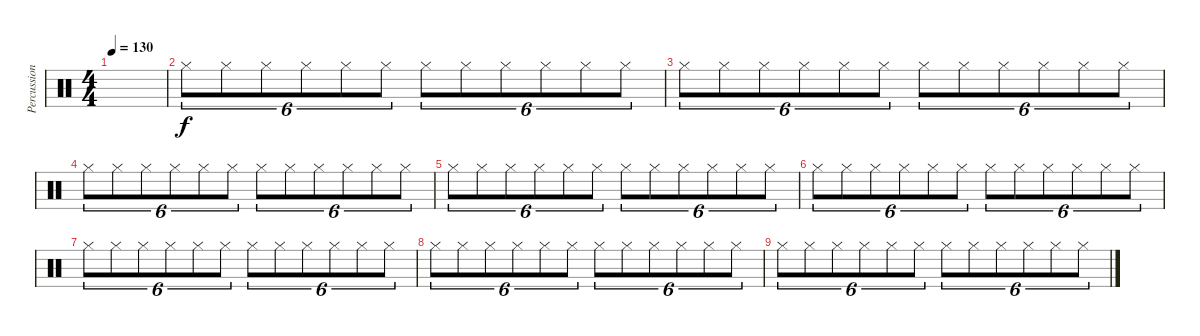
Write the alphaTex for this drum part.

\track ("Percussion" "Percussion") {instrument percussion bank 177}
\staff {score}
\articulation defaults
\ts (4 4)
\tempo 130
\clef neutral
\ks c
|
"Hi-Hat (closed)".8{tu (6 4)} "Hi-Hat (closed)".8{tu (6 4)} "Hi-Hat (closed)".8{tu (6 4)} "Hi-Hat (closed)".8{tu (6 4)} "Hi-Hat (closed)".8{tu (6 4)} "Hi-Hat (closed)".8{tu (6 4)} "Hi-Hat (closed)".8{tu (6 4)} "Hi-Hat (closed)".8{tu (6 4)} "Hi-Hat (closed)".8{tu (6 4)} "Hi-Hat (closed)".8{tu (6 4)} "Hi-Hat (closed)".8{tu (6 4)} "Hi-Hat (closed)".8{tu (6 4)} |
"Hi-Hat (closed)".8{tu (6 4)} "Hi-Hat (closed)".8{tu (6 4)} "Hi-Hat (closed)".8{tu (6 4)} "Hi-Hat (closed)".8{tu (6 4)} "Hi-Hat (closed)".8{tu (6 4)} "Hi-Hat (closed)".8{tu (6 4)} "Hi-Hat (closed)".8{tu (6 4)} "Hi-Hat (closed)".8{tu (6 4)} "Hi-Hat (closed)".8{tu (6 4)} "Hi-Hat (closed)".8{tu (6 4)} "Hi-Hat (closed)".8{tu (6 4)} "Hi-Hat (closed)".8{tu (6 4)} |
"Hi-Hat (closed)".8{tu (6 4)} "Hi-Hat (closed)".8{tu (6 4)} "Hi-Hat (closed)".8{tu (6 4)} "Hi-Hat (closed)".8{tu (6 4)} "Hi-Hat (closed)".8{tu (6 4)} "Hi-Hat (closed)".8{tu (6 4)} "Hi-Hat (closed)".8{tu (6 4)} "Hi-Hat (closed)".8{tu (6 4)} "Hi-Hat (closed)".8{tu (6 4)} "Hi-Hat (closed)".8{tu (6 4)} "Hi-Hat (closed)".8{tu (6 4)} "Hi-Hat (closed)".8{tu (6 4)} |
"Hi-Hat (closed)".8{tu (6 4)} "Hi-Hat (closed)".8{tu (6 4)} "Hi-Hat (closed)".8{tu (6 4)} "Hi-Hat (closed)".8{tu (6 4)} "Hi-Hat (closed)".8{tu (6 4)} "Hi-Hat (closed)".8{tu (6 4)} "Hi-Hat (closed)".8{tu (6 4)} "Hi-Hat (closed)".8{tu (6 4)} "Hi-Hat (closed)".8{tu (6 4)} "Hi-Hat (closed)".8{tu (6 4)} "Hi-Hat (closed)".8{tu (6 4)} "Hi-Hat (closed)".8{tu (6 4)} |
"Hi-Hat (closed)".8{tu (6 4)} "Hi-Hat (closed)".8{tu (6 4)} "Hi-Hat (closed)".8{tu (6 4)} "Hi-Hat (closed)".8{tu (6 4)} "Hi-Hat (closed)".8{tu (6 4)} "Hi-Hat (closed)".8{tu (6 4)} "Hi-Hat (closed)".8{tu (6 4)} "Hi-Hat (closed)".8{tu (6 4)} "Hi-Hat (closed)".8{tu (6 4)} "Hi-Hat (closed)".8{tu (6 4)} "Hi-Hat (closed)".8{tu (6 4)} "Hi-Hat (closed)".8{tu (6 4)} |
"Hi-Hat (closed)".8{tu (6 4)} "Hi-Hat (closed)".8{tu (6 4)} "Hi-Hat (closed)".8{tu (6 4)} "Hi-Hat (closed)".8{tu (6 4)} "Hi-Hat (closed)".8{tu (6 4)} "Hi-Hat (closed)".8{tu (6 4)} "Hi-Hat (closed)".8{tu (6 4)} "Hi-Hat (closed)".8{tu (6 4)} "Hi-Hat (closed)".8{tu (6 4)} "Hi-Hat (closed)".8{tu (6 4)} "Hi-Hat (closed)".8{tu (6 4)} "Hi-Hat (closed)".8{tu (6 4)} |
"Hi-Hat (closed)".8{tu (6 4)} "Hi-Hat (closed)".8{tu (6 4)} "Hi-Hat (closed)".8{tu (6 4)} "Hi-Hat (closed)".8{tu (6 4)} "Hi-Hat (closed)".8{tu (6 4)} "Hi-Hat (closed)".8{tu (6 4)} "Hi-Hat (closed)".8{tu (6 4)} "Hi-Hat (closed)".8{tu (6 4)} "Hi-Hat (closed)".8{tu (6 4)} "Hi-Hat (closed)".8{tu (6 4)} "Hi-Hat (closed)".8{tu (6 4)} "Hi-Hat (closed)".8{tu (6 4)} |
"Hi-Hat (closed)".8{tu (6 4)} "Hi-Hat (closed)".8{tu (6 4)} "Hi-Hat (closed)".8{tu (6 4)} "Hi-Hat (closed)".8{tu (6 4)} "Hi-Hat (closed)".8{tu (6 4)} "Hi-Hat (closed)".8{tu (6 4)} "Hi-Hat (closed)".8{tu (6 4)} "Hi-Hat (closed)".8{tu (6 4)} "Hi-Hat (closed)".8{tu (6 4)} "Hi-Hat (closed)".8{tu (6 4)} "Hi-Hat (closed)".8{tu (6 4)} "Hi-Hat (closed)".8{tu (6 4)}
